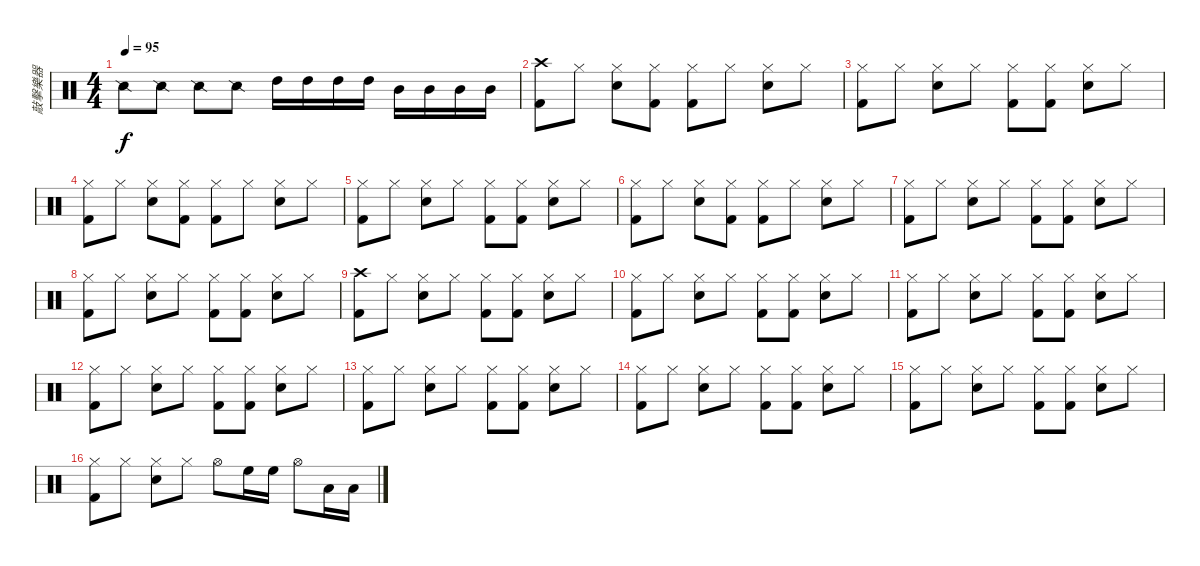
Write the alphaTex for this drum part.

\track ("敲擊樂器" "敲擊樂器") {instrument percussion}
\staff {score}
\articulation defaults
\ts (4 4)
\tempo 95
\clef neutral
\ks c "Snare (side stick) 2".8{dy f} "Snare (side stick) 2".8 "Snare (side stick) 2".8 "Snare (side stick) 2".8 "High Tom (hit)".16 "High Tom (hit)".16 "High Tom (hit)".16 "High Tom (hit)".16 "Mid Tom (hit)".16 "Mid Tom (hit)".16 "Mid Tom (hit)".16 "Mid Tom (hit)".16
|
("Crash high (hit)" "Kick (hit) 2").8 "Hi-Hat (closed)".8 ("Hi-Hat (closed)" "Snare (hit) 2").8 ("Hi-Hat (closed)" "Kick (hit) 2").8 ("Hi-Hat (closed)" "Kick (hit) 2").8 "Hi-Hat (closed)".8 ("Hi-Hat (closed)" "Snare (hit) 2").8 "Hi-Hat (closed)".8 |
("Hi-Hat (closed)" "Kick (hit) 2").8 "Hi-Hat (closed)".8 ("Hi-Hat (closed)" "Snare (hit) 2").8 "Hi-Hat (closed)".8 ("Hi-Hat (closed)" "Kick (hit) 2").8 ("Hi-Hat (closed)" "Kick (hit) 2").8 ("Hi-Hat (closed)" "Snare (hit) 2").8 "Hi-Hat (closed)".8 |
("Hi-Hat (closed)" "Kick (hit) 2").8 "Hi-Hat (closed)".8 ("Hi-Hat (closed)" "Snare (hit) 2").8 ("Hi-Hat (closed)" "Kick (hit) 2").8 ("Hi-Hat (closed)" "Kick (hit) 2").8 "Hi-Hat (closed)".8 ("Hi-Hat (closed)" "Snare (hit) 2").8 "Hi-Hat (closed)".8 |
("Hi-Hat (closed)" "Kick (hit) 2").8 "Hi-Hat (closed)".8 ("Hi-Hat (closed)" "Snare (hit) 2").8 "Hi-Hat (closed)".8 ("Hi-Hat (closed)" "Kick (hit) 2").8 ("Hi-Hat (closed)" "Kick (hit) 2").8 ("Hi-Hat (closed)" "Snare (hit) 2").8 "Hi-Hat (closed)".8 |
("Hi-Hat (closed)" "Kick (hit) 2").8 "Hi-Hat (closed)".8 ("Hi-Hat (closed)" "Snare (hit) 2").8 ("Hi-Hat (closed)" "Kick (hit) 2").8 ("Hi-Hat (closed)" "Kick (hit) 2").8 "Hi-Hat (closed)".8 ("Hi-Hat (closed)" "Snare (hit) 2").8 "Hi-Hat (closed)".8 |
("Hi-Hat (closed)" "Kick (hit) 2").8 "Hi-Hat (closed)".8 ("Hi-Hat (closed)" "Snare (hit) 2").8 "Hi-Hat (closed)".8 ("Hi-Hat (closed)" "Kick (hit) 2").8 ("Hi-Hat (closed)" "Kick (hit) 2").8 ("Hi-Hat (closed)" "Snare (hit) 2").8 "Hi-Hat (closed)".8 |
("Hi-Hat (closed)" "Kick (hit) 2").8 "Hi-Hat (closed)".8 ("Hi-Hat (closed)" "Snare (hit) 2").8 "Hi-Hat (closed)".8 ("Hi-Hat (closed)" "Kick (hit) 2").8 ("Hi-Hat (closed)" "Kick (hit) 2").8 ("Hi-Hat (closed)" "Snare (hit) 2").8 "Hi-Hat (closed)".8 |
("Crash high (hit)" "Kick (hit) 2").8 "Hi-Hat (closed)".8 ("Hi-Hat (closed)" "Snare (hit) 2").8 "Hi-Hat (closed)".8 ("Hi-Hat (closed)" "Kick (hit) 2").8 ("Hi-Hat (closed)" "Kick (hit) 2").8 ("Hi-Hat (closed)" "Snare (hit) 2").8 "Hi-Hat (closed)".8 |
("Hi-Hat (closed)" "Kick (hit) 2").8 "Hi-Hat (closed)".8 ("Hi-Hat (closed)" "Snare (hit) 2").8 "Hi-Hat (closed)".8 ("Hi-Hat (closed)" "Kick (hit) 2").8 ("Hi-Hat (closed)" "Kick (hit) 2").8 ("Hi-Hat (closed)" "Snare (hit) 2").8 "Hi-Hat (closed)".8 |
("Hi-Hat (closed)" "Kick (hit) 2").8 "Hi-Hat (closed)".8 ("Hi-Hat (closed)" "Snare (hit) 2").8 "Hi-Hat (closed)".8 ("Hi-Hat (closed)" "Kick (hit) 2").8 ("Hi-Hat (closed)" "Kick (hit) 2").8 ("Hi-Hat (closed)" "Snare (hit) 2").8 "Hi-Hat (closed)".8 |
("Hi-Hat (closed)" "Kick (hit) 2").8 "Hi-Hat (closed)".8 ("Hi-Hat (closed)" "Snare (hit) 2").8 "Hi-Hat (closed)".8 ("Hi-Hat (closed)" "Kick (hit) 2").8 ("Hi-Hat (closed)" "Kick (hit) 2").8 ("Hi-Hat (closed)" "Snare (hit) 2").8 "Hi-Hat (closed)".8 |
("Hi-Hat (closed)" "Kick (hit) 2").8 "Hi-Hat (closed)".8 ("Hi-Hat (closed)" "Snare (hit) 2").8 "Hi-Hat (closed)".8 ("Hi-Hat (closed)" "Kick (hit) 2").8 ("Hi-Hat (closed)" "Kick (hit) 2").8 ("Hi-Hat (closed)" "Snare (hit) 2").8 "Hi-Hat (closed)".8 |
("Hi-Hat (closed)" "Kick (hit) 2").8 "Hi-Hat (closed)".8 ("Hi-Hat (closed)" "Snare (hit) 2").8 "Hi-Hat (closed)".8 ("Hi-Hat (closed)" "Kick (hit) 2").8 ("Hi-Hat (closed)" "Kick (hit) 2").8 ("Hi-Hat (closed)" "Snare (hit) 2").8 "Hi-Hat (closed)".8 |
("Hi-Hat (closed)" "Kick (hit) 2").8 "Hi-Hat (closed)".8 ("Hi-Hat (closed)" "Snare (hit) 2").8 "Hi-Hat (closed)".8 ("Hi-Hat (closed)" "Kick (hit) 2").8 ("Hi-Hat (closed)" "Kick (hit) 2").8 ("Hi-Hat (closed)" "Snare (hit) 2").8 "Hi-Hat (closed)".8 |
("Hi-Hat (closed)" "Kick (hit) 2").8 "Hi-Hat (closed)".8 ("Hi-Hat (closed)" "Snare (hit) 2").8 "Hi-Hat (closed)".8 "Hi-Hat (open)".8 "High Floor Tom (hit)".16 "High Floor Tom (hit)".16 "Hi-Hat (open)".8 "Low Tom (hit)".16 "Low Tom (hit)".16
